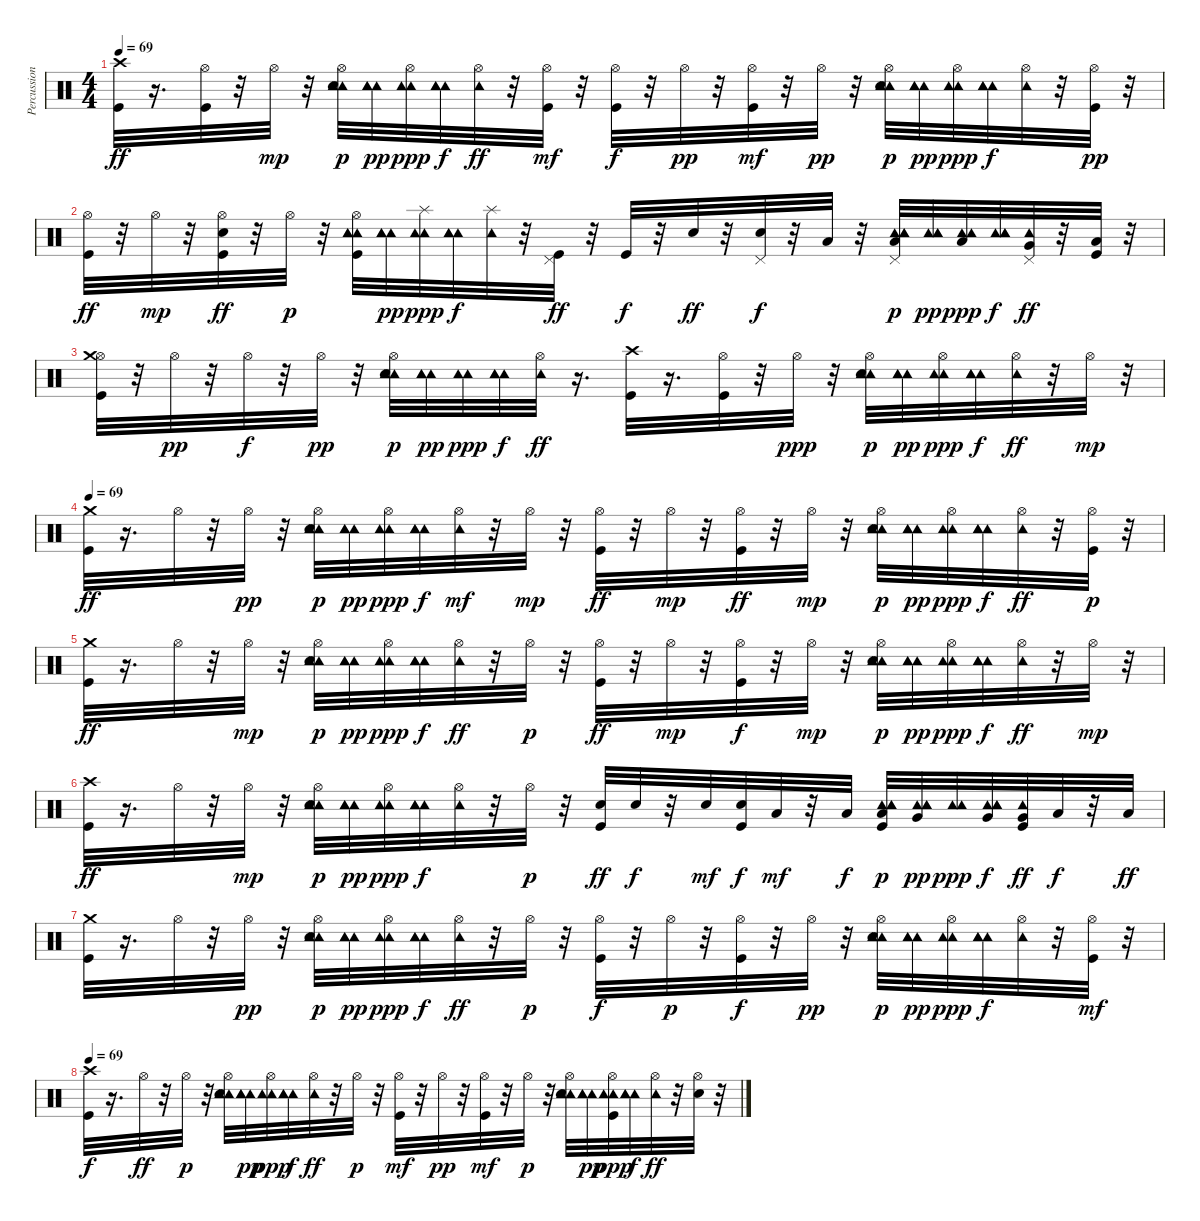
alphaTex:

\track ("Percussions" "Percussion") {instrument percussion}
\staff {score}
\articulation defaults
\ts (4 4)
\tempo 69
\clef neutral
\ks c
("Crash high (hit)" "Kick (hit)").32{dy ff} r.16{d} ("Kick (hit)" "Hi-Hat (open)").32 r.32 "Hi-Hat (open)".32{dy mp} r.32 ("Tambourine (hit)" "Tambourine (hit)" "Electric Snare (hit)" "Hi-Hat (open)" "Tambourine (hit)").32{dy p} ("Tambourine (hit)" "Tambourine (hit)" "Tambourine (hit)").32{dy pp} ("Tambourine (hit)" "Hi-Hat (open)" "Tambourine (hit)").32{dy ppp} ("Tambourine (hit)" "Tambourine (hit)" "Tambourine (hit)").32{dy f} ("Tambourine (hit)" "Hi-Hat (open)").32{dy ff} r.32 ("Kick (hit)" "Hi-Hat (open)").32{dy mf} r.32 ("Kick (hit)" "Hi-Hat (open)").32{dy f} r.32 "Hi-Hat (open)".32{dy pp} r.32 ("Kick (hit)" "Hi-Hat (open)").32{dy mf} r.32 "Hi-Hat (open)".32{dy pp} r.32 ("Tambourine (hit)" "Tambourine (hit)" "Electric Snare (hit)" "Hi-Hat (open)" "Tambourine (hit)").32{dy p} ("Tambourine (hit)" "Tambourine (hit)" "Tambourine (hit)").32{dy pp} ("Tambourine (hit)" "Hi-Hat (open)" "Tambourine (hit)").32{dy ppp} ("Tambourine (hit)" "Tambourine (hit)" "Tambourine (hit)").32{dy f} ("Tambourine (hit)" "Hi-Hat (open)").32 r.32 ("Kick (hit)" "Hi-Hat (open)").32{dy pp} r.32 |
("Kick (hit)" "Hi-Hat (open)").32{dy ff} r.32 "Hi-Hat (open)".32{dy mp} r.32 ("Electric Snare (hit)" "Kick (hit)" "Hi-Hat (open)").32{dy ff} r.32 "Hi-Hat (open)".32{dy p} r.32 ("Tambourine (hit)" "Tambourine (hit)" "Kick (hit)" "Hi-Hat (open)" "Tambourine (hit)").32 ("Tambourine (hit)" "Tambourine (hit)" "Tambourine (hit)").32{dy pp} ("Tambourine (hit)" "Splash (hit)" "Tambourine (hit)").32{dy ppp} ("Tambourine (hit)" "Tambourine (hit)" "Tambourine (hit)").32{dy f} ("Tambourine (hit)" "Splash (hit)").32 r.32 ("Pedal Hi-Hat (hit)" "Kick (hit)").32{dy ff} r.32 "Kick (hit)".32{dy f} r.32 "Electric Snare (hit)".32{dy ff} r.32 ("Electric Snare (hit)" "Pedal Hi-Hat (hit)").32{dy f} r.32 "Low Floor Tom (hit)".32 r.32 ("Tambourine (hit)" "Tambourine (hit)" "Low Tom (hit)" "Pedal Hi-Hat (hit)" "Tambourine (hit)").32{dy p} ("Tambourine (hit)" "Tambourine (hit)" "Tambourine (hit)").32{dy pp} ("Tambourine (hit)" "Low Tom (hit)" "Tambourine (hit)").32{dy ppp} ("Tambourine (hit)" "Tambourine (hit)" "Tambourine (hit)").32{dy f} ("Tambourine (hit)" "Very Low Tom (hit)" "Pedal Hi-Hat (hit)").32{dy ff} r.32 ("Kick (hit)" "Low Floor Tom (hit)").32 r.32 |
("Kick (hit)" "Hi-Hat (open)" "Crash medium (hit)").32 r.32 "Hi-Hat (open)".32{dy pp} r.32 "Hi-Hat (open)".32{dy f} r.32 "Hi-Hat (open)".32{dy pp} r.32 ("Tambourine (hit)" "Tambourine (hit)" "Electric Snare (hit)" "Hi-Hat (open)" "Tambourine (hit)").32{dy p} ("Tambourine (hit)" "Tambourine (hit)" "Tambourine (hit)").32{dy pp} ("Tambourine (hit)" "Tambourine (hit)").32{dy ppp} ("Tambourine (hit)" "Tambourine (hit)" "Tambourine (hit)").32{dy f} ("Tambourine (hit)" "Hi-Hat (open)").32{dy ff} r.16{d} ("Crash high (hit)" "Kick (hit)").32 r.16{d} ("Hi-Hat (open)" "Kick (hit)").32 r.32 "Hi-Hat (open)".32{dy ppp} r.32 ("Tambourine (hit)" "Tambourine (hit)" "Electric Snare (hit)" "Hi-Hat (open)" "Tambourine (hit)").32{dy p} ("Tambourine (hit)" "Tambourine (hit)" "Tambourine (hit)").32{dy pp} ("Tambourine (hit)" "Hi-Hat (open)" "Tambourine (hit)").32{dy ppp} ("Tambourine (hit)" "Tambourine (hit)" "Tambourine (hit)").32{dy f} ("Tambourine (hit)" "Hi-Hat (open)").32{dy ff} r.32 "Hi-Hat (open)".32{dy mp} r.32 |
\tempo 69
("Kick (hit)" "Crash medium (hit)").32{dy ff} r.16{d} "Hi-Hat (open)".32 r.32 "Hi-Hat (open)".32{dy pp} r.32 ("Tambourine (hit)" "Tambourine (hit)" "Electric Snare (hit)" "Hi-Hat (open)" "Tambourine (hit)").32{dy p} ("Tambourine (hit)" "Tambourine (hit)" "Tambourine (hit)").32{dy pp} ("Tambourine (hit)" "Hi-Hat (open)" "Tambourine (hit)").32{dy ppp} ("Tambourine (hit)" "Tambourine (hit)" "Tambourine (hit)").32{dy f} ("Tambourine (hit)" "Hi-Hat (open)").32{dy mf} r.32 "Hi-Hat (open)".32{dy mp} r.32 ("Kick (hit)" "Hi-Hat (open)").32{dy ff} r.32 "Hi-Hat (open)".32{dy mp} r.32 ("Hi-Hat (open)" "Kick (hit)").32{dy ff} r.32 "Hi-Hat (open)".32{dy mp} r.32 ("Tambourine (hit)" "Tambourine (hit)" "Hi-Hat (open)" "Electric Snare (hit)" "Tambourine (hit)").32{dy p} ("Tambourine (hit)" "Tambourine (hit)" "Tambourine (hit)").32{dy pp} ("Tambourine (hit)" "Hi-Hat (open)" "Tambourine (hit)").32{dy ppp} ("Tambourine (hit)" "Tambourine (hit)" "Tambourine (hit)").32{dy f} ("Tambourine (hit)" "Hi-Hat (open)").32{dy ff} r.32 ("Kick (hit)" "Hi-Hat (open)").32{dy p} r.32 |
("Crash medium (hit)" "Kick (hit)").32{dy ff} r.16{d} "Hi-Hat (open)".32 r.32 "Hi-Hat (open)".32{dy mp} r.32 ("Tambourine (hit)" "Tambourine (hit)" "Hi-Hat (open)" "Electric Snare (hit)" "Tambourine (hit)").32{dy p} ("Tambourine (hit)" "Tambourine (hit)" "Tambourine (hit)").32{dy pp} ("Tambourine (hit)" "Hi-Hat (open)" "Tambourine (hit)").32{dy ppp} ("Tambourine (hit)" "Tambourine (hit)" "Tambourine (hit)").32{dy f} ("Tambourine (hit)" "Hi-Hat (open)").32{dy ff} r.32 "Hi-Hat (open)".32{dy p} r.32 ("Kick (hit)" "Hi-Hat (open)").32{dy ff} r.32 "Hi-Hat (open)".32{dy mp} r.32 ("Kick (hit)" "Hi-Hat (open)").32{dy f} r.32 "Hi-Hat (open)".32{dy mp} r.32 ("Tambourine (hit)" "Tambourine (hit)" "Hi-Hat (open)" "Electric Snare (hit)" "Tambourine (hit)").32{dy p} ("Tambourine (hit)" "Tambourine (hit)" "Tambourine (hit)").32{dy pp} ("Tambourine (hit)" "Hi-Hat (open)" "Tambourine (hit)").32{dy ppp} ("Tambourine (hit)" "Tambourine (hit)" "Tambourine (hit)").32{dy f} ("Tambourine (hit)" "Hi-Hat (open)").32{dy ff} r.32 "Hi-Hat (open)".32{dy mp} r.32 |
("Kick (hit)" "Crash high (hit)").32{dy ff} r.16{d} "Hi-Hat (open)".32 r.32 "Hi-Hat (open)".32{dy mp} r.32 ("Tambourine (hit)" "Tambourine (hit)" "Electric Snare (hit)" "Hi-Hat (open)" "Tambourine (hit)").32{dy p} ("Tambourine (hit)" "Tambourine (hit)" "Tambourine (hit)").32{dy pp} ("Tambourine (hit)" "Hi-Hat (open)" "Tambourine (hit)").32{dy ppp} ("Tambourine (hit)" "Tambourine (hit)" "Tambourine (hit)").32{dy f} ("Tambourine (hit)" "Hi-Hat (open)").32 r.32 "Hi-Hat (open)".32{dy p} r.32 ("Electric Snare (hit)" "Kick (hit)").32{dy ff} "Electric Snare (hit)".32{dy f} r.32 "Electric Snare (hit)".32{dy mf} ("Electric Snare (hit)" "Kick (hit)").32{dy f} "Low Tom (hit)".32{dy mf} r.32 "Low Tom (hit)".32{dy f} ("Tambourine (hit)" "Low Tom (hit)" "Tambourine (hit)" "Kick (hit)" "Tambourine (hit)").32{dy p} ("Tambourine (hit)" "Tambourine (hit)" "Very Low Tom (hit)" "Tambourine (hit)").32{dy pp} ("Tambourine (hit)" "Tambourine (hit)").32{dy ppp} ("Tambourine (hit)" "Very Low Tom (hit)" "Tambourine (hit)" "Tambourine (hit)").32{dy f} ("Tambourine (hit)" "Very Low Tom (hit)" "Kick (hit)").32{dy ff} "Low Floor Tom (hit)".32{dy f} r.32 "Low Floor Tom (hit)".32{dy ff} |
("Crash medium (hit)" "Kick (hit)").32 r.16{d} "Hi-Hat (open)".32 r.32 "Hi-Hat (open)".32{dy pp} r.32 ("Tambourine (hit)" "Hi-Hat (open)" "Electric Snare (hit)" "Tambourine (hit)" "Tambourine (hit)").32{dy p} ("Tambourine (hit)" "Tambourine (hit)" "Tambourine (hit)").32{dy pp} ("Tambourine (hit)" "Hi-Hat (open)" "Tambourine (hit)").32{dy ppp} ("Tambourine (hit)" "Tambourine (hit)" "Tambourine (hit)").32{dy f} ("Tambourine (hit)" "Hi-Hat (open)").32{dy ff} r.32 "Hi-Hat (open)".32{dy p} r.32 ("Hi-Hat (open)" "Kick (hit)").32{dy f} r.32 "Hi-Hat (open)".32{dy p} r.32 ("Hi-Hat (open)" "Kick (hit)").32{dy f} r.32 "Hi-Hat (open)".32{dy pp} r.32 ("Tambourine (hit)" "Hi-Hat (open)" "Tambourine (hit)" "Electric Snare (hit)" "Tambourine (hit)").32{dy p} ("Tambourine (hit)" "Tambourine (hit)" "Tambourine (hit)").32{dy pp} ("Tambourine (hit)" "Hi-Hat (open)" "Tambourine (hit)").32{dy ppp} ("Tambourine (hit)" "Tambourine (hit)" "Tambourine (hit)").32{dy f} ("Tambourine (hit)" "Hi-Hat (open)").32 r.32 ("Hi-Hat (open)" "Kick (hit)").32{dy mf} r.32 |
\tempo 69
("Crash high (hit)" "Kick (hit)").32{dy f} r.16{d} "Hi-Hat (open)".32{dy ff} r.32 "Hi-Hat (open)".32{dy p} r.32 ("Tambourine (hit)" "Tambourine (hit)" "Electric Snare (hit)" "Hi-Hat (open)" "Tambourine (hit)").32 ("Tambourine (hit)" "Tambourine (hit)" "Tambourine (hit)").32{dy pp} ("Tambourine (hit)" "Hi-Hat (open)" "Tambourine (hit)").32{dy ppp} ("Tambourine (hit)" "Tambourine (hit)" "Tambourine (hit)").32{dy f} ("Tambourine (hit)" "Hi-Hat (open)").32{dy ff} r.32 "Hi-Hat (open)".32{dy p} r.32 ("Kick (hit)" "Hi-Hat (open)").32{dy mf} r.32 "Hi-Hat (open)".32{dy pp} r.32 ("Hi-Hat (open)" "Kick (hit)").32{dy mf} r.32 "Hi-Hat (open)".32{dy p} r.32 ("Tambourine (hit)" "Hi-Hat (open)" "Tambourine (hit)" "Electric Snare (hit)" "Tambourine (hit)").32 ("Tambourine (hit)" "Tambourine (hit)" "Tambourine (hit)").32{dy pp} ("Tambourine (hit)" "Hi-Hat (open)" "Kick (hit)" "Tambourine (hit)").32{dy ppp} ("Tambourine (hit)" "Tambourine (hit)" "Tambourine (hit)").32{dy f} ("Tambourine (hit)" "Hi-Hat (open)").32{dy ff} r.32 ("Hi-Hat (open)" "Electric Snare (hit)").32 r.32
